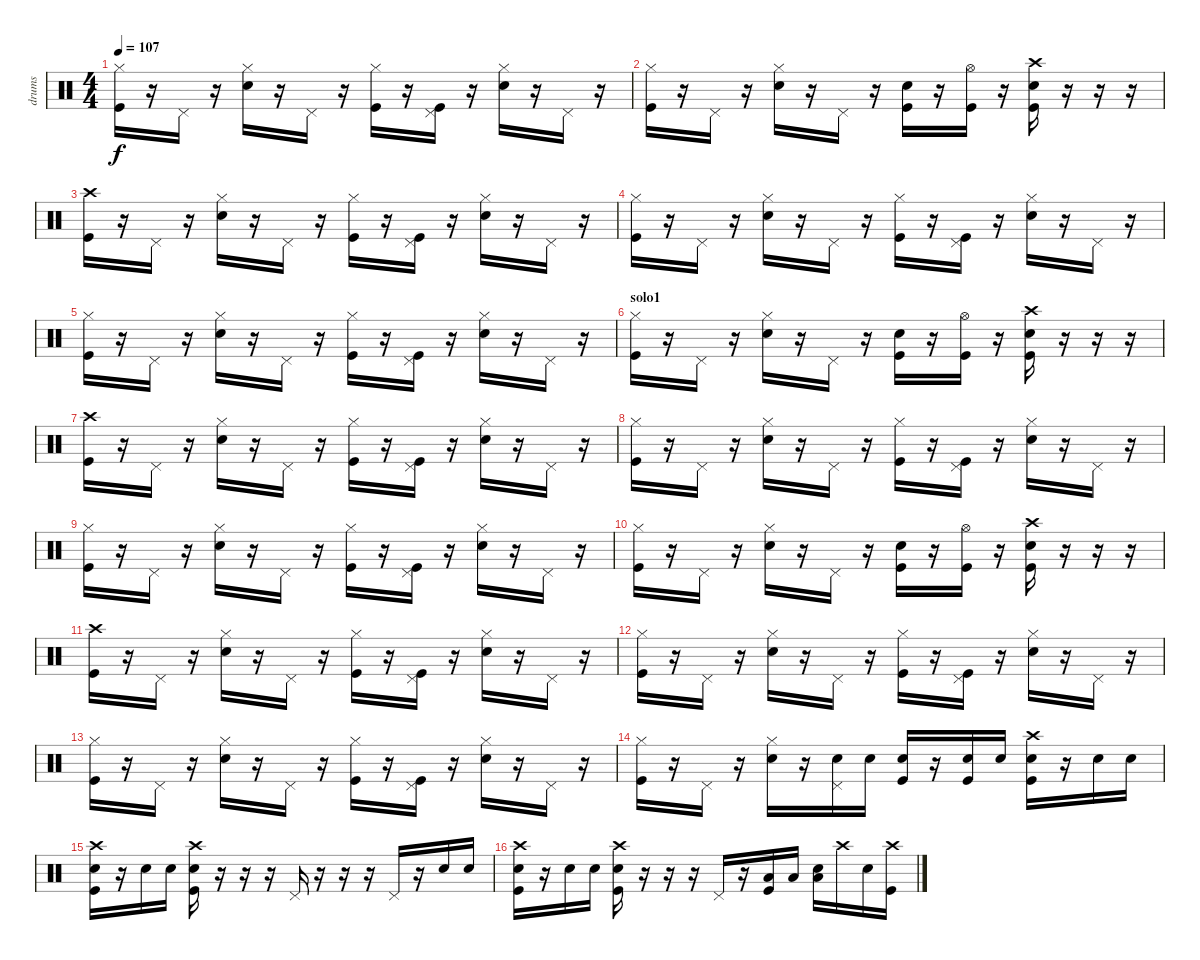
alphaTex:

\track ("drums" "drums") {instrument percussion}
\staff {score}
\articulation defaults
\ts (4 4)
\tempo 107
\clef neutral
\ks c
("Hi-Hat (closed)" "Kick (hit)").16{dy f} r.16 "Pedal Hi-Hat (hit)".16 r.16 ("Hi-Hat (closed)" "Snare (hit) 2").16 r.16 "Pedal Hi-Hat (hit)".16 r.16 ("Hi-Hat (closed)" "Kick (hit)").16 r.16 ("Pedal Hi-Hat (hit)" "Kick (hit)").16 r.16 ("Hi-Hat (closed)" "Snare (hit) 2").16 r.16 "Pedal Hi-Hat (hit)".16 r.16 |
("Hi-Hat (closed)" "Kick (hit)").16 r.16 "Pedal Hi-Hat (hit)".16 r.16 ("Hi-Hat (closed)" "Snare (hit) 2").16 r.16 "Pedal Hi-Hat (hit)".16 r.16 ("Snare (hit) 2" "Kick (hit)").16 r.16 ("Hi-Hat (open)" "Kick (hit)").16 r.16 ("Crash high (hit)" "Snare (hit) 2" "Kick (hit)").16 r.16 r.16 r.16 |
("Crash high (hit)" "Kick (hit)").16 r.16 "Pedal Hi-Hat (hit)".16 r.16 ("Hi-Hat (closed)" "Snare (hit) 2").16 r.16 "Pedal Hi-Hat (hit)".16 r.16 ("Hi-Hat (closed)" "Kick (hit)").16 r.16 ("Pedal Hi-Hat (hit)" "Kick (hit)").16 r.16 ("Hi-Hat (closed)" "Snare (hit) 2").16 r.16 "Pedal Hi-Hat (hit)".16 r.16 |
("Hi-Hat (closed)" "Kick (hit)").16 r.16 "Pedal Hi-Hat (hit)".16 r.16 ("Hi-Hat (closed)" "Snare (hit) 2").16 r.16 "Pedal Hi-Hat (hit)".16 r.16 ("Hi-Hat (closed)" "Kick (hit)").16 r.16 ("Pedal Hi-Hat (hit)" "Kick (hit)").16 r.16 ("Hi-Hat (closed)" "Snare (hit) 2").16 r.16 "Pedal Hi-Hat (hit)".16 r.16 |
("Hi-Hat (closed)" "Kick (hit)").16 r.16 "Pedal Hi-Hat (hit)".16 r.16 ("Hi-Hat (closed)" "Snare (hit) 2").16 r.16 "Pedal Hi-Hat (hit)".16 r.16 ("Hi-Hat (closed)" "Kick (hit)").16 r.16 ("Pedal Hi-Hat (hit)" "Kick (hit)").16 r.16 ("Hi-Hat (closed)" "Snare (hit) 2").16 r.16 "Pedal Hi-Hat (hit)".16 r.16 |
\section ("" "solo1")
("Hi-Hat (closed)" "Kick (hit)").16 r.16 "Pedal Hi-Hat (hit)".16 r.16 ("Hi-Hat (closed)" "Snare (hit) 2").16 r.16 "Pedal Hi-Hat (hit)".16 r.16 ("Snare (hit) 2" "Kick (hit)").16 r.16 ("Hi-Hat (open)" "Kick (hit)").16 r.16 ("Crash high (hit)" "Snare (hit) 2" "Kick (hit)").16 r.16 r.16 r.16 |
("Crash high (hit)" "Kick (hit)").16 r.16 "Pedal Hi-Hat (hit)".16 r.16 ("Hi-Hat (closed)" "Snare (hit) 2").16 r.16 "Pedal Hi-Hat (hit)".16 r.16 ("Hi-Hat (closed)" "Kick (hit)").16 r.16 ("Pedal Hi-Hat (hit)" "Kick (hit)").16 r.16 ("Hi-Hat (closed)" "Snare (hit) 2").16 r.16 "Pedal Hi-Hat (hit)".16 r.16 |
("Hi-Hat (closed)" "Kick (hit)").16 r.16 "Pedal Hi-Hat (hit)".16 r.16 ("Hi-Hat (closed)" "Snare (hit) 2").16 r.16 "Pedal Hi-Hat (hit)".16 r.16 ("Hi-Hat (closed)" "Kick (hit)").16 r.16 ("Pedal Hi-Hat (hit)" "Kick (hit)").16 r.16 ("Hi-Hat (closed)" "Snare (hit) 2").16 r.16 "Pedal Hi-Hat (hit)".16 r.16 |
("Hi-Hat (closed)" "Kick (hit)").16 r.16 "Pedal Hi-Hat (hit)".16 r.16 ("Hi-Hat (closed)" "Snare (hit) 2").16 r.16 "Pedal Hi-Hat (hit)".16 r.16 ("Hi-Hat (closed)" "Kick (hit)").16 r.16 ("Pedal Hi-Hat (hit)" "Kick (hit)").16 r.16 ("Hi-Hat (closed)" "Snare (hit) 2").16 r.16 "Pedal Hi-Hat (hit)".16 r.16 |
("Hi-Hat (closed)" "Kick (hit)").16 r.16 "Pedal Hi-Hat (hit)".16 r.16 ("Hi-Hat (closed)" "Snare (hit) 2").16 r.16 "Pedal Hi-Hat (hit)".16 r.16 ("Snare (hit) 2" "Kick (hit)").16 r.16 ("Hi-Hat (open)" "Kick (hit)").16 r.16 ("Crash high (hit)" "Snare (hit) 2" "Kick (hit)").16 r.16 r.16 r.16 |
("Crash high (hit)" "Kick (hit)").16 r.16 "Pedal Hi-Hat (hit)".16 r.16 ("Hi-Hat (closed)" "Snare (hit) 2").16 r.16 "Pedal Hi-Hat (hit)".16 r.16 ("Hi-Hat (closed)" "Kick (hit)").16 r.16 ("Pedal Hi-Hat (hit)" "Kick (hit)").16 r.16 ("Hi-Hat (closed)" "Snare (hit) 2").16 r.16 "Pedal Hi-Hat (hit)".16 r.16 |
("Hi-Hat (closed)" "Kick (hit)").16 r.16 "Pedal Hi-Hat (hit)".16 r.16 ("Hi-Hat (closed)" "Snare (hit) 2").16 r.16 "Pedal Hi-Hat (hit)".16 r.16 ("Hi-Hat (closed)" "Kick (hit)").16 r.16 ("Pedal Hi-Hat (hit)" "Kick (hit)").16 r.16 ("Hi-Hat (closed)" "Snare (hit) 2").16 r.16 "Pedal Hi-Hat (hit)".16 r.16 |
("Hi-Hat (closed)" "Kick (hit)").16 r.16 "Pedal Hi-Hat (hit)".16 r.16 ("Hi-Hat (closed)" "Snare (hit) 2").16 r.16 "Pedal Hi-Hat (hit)".16 r.16 ("Hi-Hat (closed)" "Kick (hit)").16 r.16 ("Pedal Hi-Hat (hit)" "Kick (hit)").16 r.16 ("Hi-Hat (closed)" "Snare (hit) 2").16 r.16 "Pedal Hi-Hat (hit)".16 r.16 |
("Hi-Hat (closed)" "Kick (hit)").16 r.16 "Pedal Hi-Hat (hit)".16 r.16 ("Hi-Hat (closed)" "Snare (hit) 2").16 r.16 ("Pedal Hi-Hat (hit)" "Snare (hit) 2").16 "Snare (hit) 2".16 ("Snare (hit) 2" "Kick (hit)").16 r.16 ("Snare (hit) 2" "Kick (hit)").16 "Snare (hit) 2".16 ("Crash high (hit)" "Snare (hit) 2" "Kick (hit)").16 r.16 "Snare (hit) 2".16 "Snare (hit) 2".16 |
("Crash high (hit)" "Snare (hit) 2" "Kick (hit)").16 r.16 "Snare (hit) 2".16 "Snare (hit) 2".16 ("Crash high (hit)" "Snare (hit) 2" "Kick (hit)").16 r.16 r.16 r.16 "Pedal Hi-Hat (hit)".16 r.16 r.16 r.16 "Pedal Hi-Hat (hit)".16 r.16 "Snare (hit) 2".16 "Snare (hit) 2".16 |
("Crash high (hit)" "Snare (hit) 2" "Kick (hit)").16 r.16 "Snare (hit) 2".16 "Snare (hit) 2".16 ("Crash high (hit)" "Snare (hit) 2" "Kick (hit)").16 r.16 r.16 r.16 "Pedal Hi-Hat (hit)".16 r.16 ("Low Floor Tom (hit)" "Kick (hit)").16 "Low Tom (hit)".16 ("Low Tom (hit)" "Electric Snare (hit)").16 "Crash high (hit)".16 "Electric Snare (hit)".16 ("Crash high (hit)" "Kick (hit)").16
